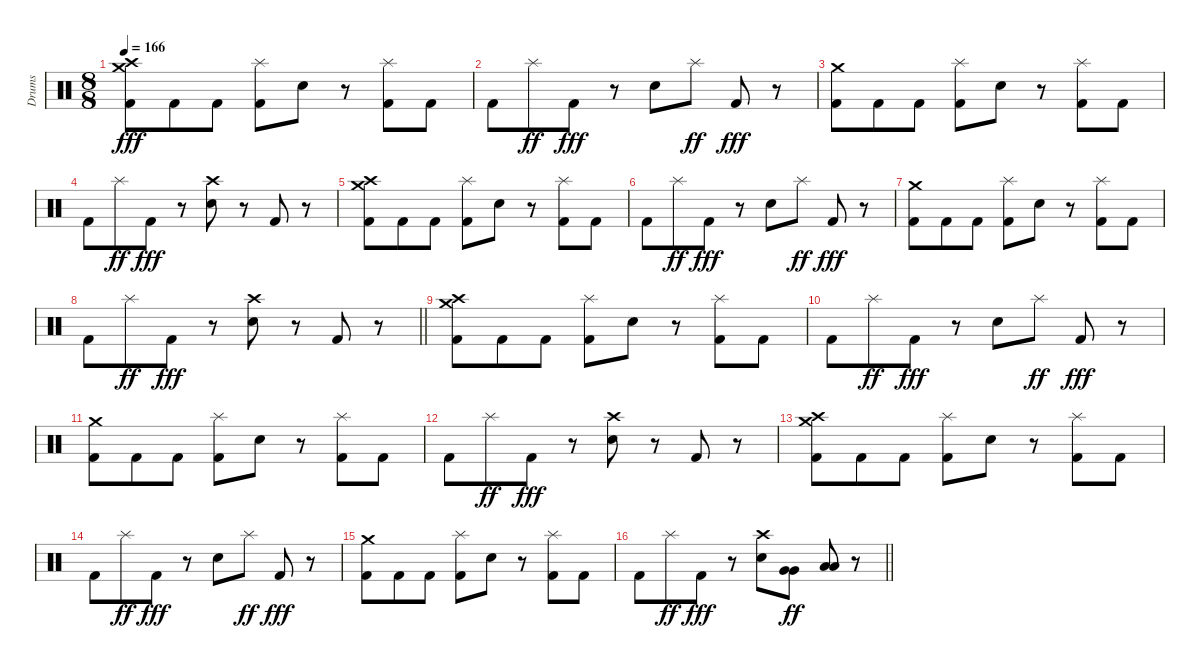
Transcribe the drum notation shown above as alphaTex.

\track ("Drums" "Drums") {instrument percussion}
\staff {score}
\articulation defaults
\ts (8 8)
\tempo 166
\clef neutral
\ks c
("Crash high (hit)" "Crash medium (hit)" "Kick (hit) 2").8{dy fff} "Kick (hit) 2".8 "Kick (hit) 2".8 ("Splash (hit)" "Kick (hit) 2").8 "Electric Snare (hit)".8 r.8 ("Splash (hit)" "Kick (hit) 2").8 "Kick (hit) 2".8 |
"Kick (hit) 2".8 "Splash (hit)".8{dy ff} "Kick (hit) 2".8{dy fff} r.8 "Electric Snare (hit)".8 "Splash (hit)".8{dy ff} "Kick (hit) 2".8{dy fff} r.8 |
("Crash medium (hit)" "Kick (hit) 2").8 "Kick (hit) 2".8 "Kick (hit) 2".8 ("Splash (hit)" "Kick (hit) 2").8 "Electric Snare (hit)".8 r.8 ("Splash (hit)" "Kick (hit) 2").8 "Kick (hit) 2".8 |
"Kick (hit) 2".8 "Splash (hit)".8{dy ff} "Kick (hit) 2".8{dy fff} r.8 ("Crash high (hit)" "Electric Snare (hit)").8 r.8 "Kick (hit) 2".8 r.8 |
("Crash high (hit)" "Crash medium (hit)" "Kick (hit) 2").8 "Kick (hit) 2".8 "Kick (hit) 2".8 ("Splash (hit)" "Kick (hit) 2").8 "Electric Snare (hit)".8 r.8 ("Splash (hit)" "Kick (hit) 2").8 "Kick (hit) 2".8 |
"Kick (hit) 2".8 "Splash (hit)".8{dy ff} "Kick (hit) 2".8{dy fff} r.8 "Electric Snare (hit)".8 "Splash (hit)".8{dy ff} "Kick (hit) 2".8{dy fff} r.8 |
("Crash medium (hit)" "Kick (hit) 2").8 "Kick (hit) 2".8 "Kick (hit) 2".8 ("Splash (hit)" "Kick (hit) 2").8 "Electric Snare (hit)".8 r.8 ("Splash (hit)" "Kick (hit) 2").8 "Kick (hit) 2".8 |
\barLineRight lightlight "Kick (hit) 2".8 "Splash (hit)".8{dy ff} "Kick (hit) 2".8{dy fff}
r.8 ("Crash high (hit)" "Electric Snare (hit)").8 r.8 "Kick (hit) 2".8 r.8 |
("Crash high (hit)" "Crash medium (hit)" "Kick (hit) 2").8 "Kick (hit) 2".8 "Kick (hit) 2".8 ("Splash (hit)" "Kick (hit) 2").8 "Electric Snare (hit)".8 r.8 ("Splash (hit)" "Kick (hit) 2").8 "Kick (hit) 2".8 |
"Kick (hit) 2".8 "Splash (hit)".8{dy ff} "Kick (hit) 2".8{dy fff} r.8 "Electric Snare (hit)".8 "Splash (hit)".8{dy ff} "Kick (hit) 2".8{dy fff} r.8 |
("Crash medium (hit)" "Kick (hit) 2").8 "Kick (hit) 2".8 "Kick (hit) 2".8 ("Splash (hit)" "Kick (hit) 2").8 "Electric Snare (hit)".8 r.8 ("Splash (hit)" "Kick (hit) 2").8 "Kick (hit) 2".8 |
"Kick (hit) 2".8 "Splash (hit)".8{dy ff} "Kick (hit) 2".8{dy fff} r.8 ("Crash high (hit)" "Electric Snare (hit)").8 r.8 "Kick (hit) 2".8 r.8 |
("Crash high (hit)" "Crash medium (hit)" "Kick (hit) 2").8 "Kick (hit) 2".8 "Kick (hit) 2".8 ("Splash (hit)" "Kick (hit) 2").8 "Electric Snare (hit)".8 r.8 ("Splash (hit)" "Kick (hit) 2").8 "Kick (hit) 2".8 |
"Kick (hit) 2".8 "Splash (hit)".8{dy ff} "Kick (hit) 2".8{dy fff} r.8 "Electric Snare (hit)".8 "Splash (hit)".8{dy ff} "Kick (hit) 2".8{dy fff} r.8 |
("Crash medium (hit)" "Kick (hit) 2").8 "Kick (hit) 2".8 "Kick (hit) 2".8 ("Splash (hit)" "Kick (hit) 2").8 "Electric Snare (hit)".8 r.8 ("Splash (hit)" "Kick (hit) 2").8 "Kick (hit) 2".8 |
\barLineRight lightlight "Kick (hit) 2".8 "Splash (hit)".8{dy ff} "Kick (hit) 2".8{dy fff}
r.8 ("Crash high (hit)" "Electric Snare (hit)").8 ("Very Low Tom (hit)" "Very Low Tom (hit)").8{dy ff} ("Low Floor Tom (hit)" "Low Floor Tom (hit)").8 r.8
